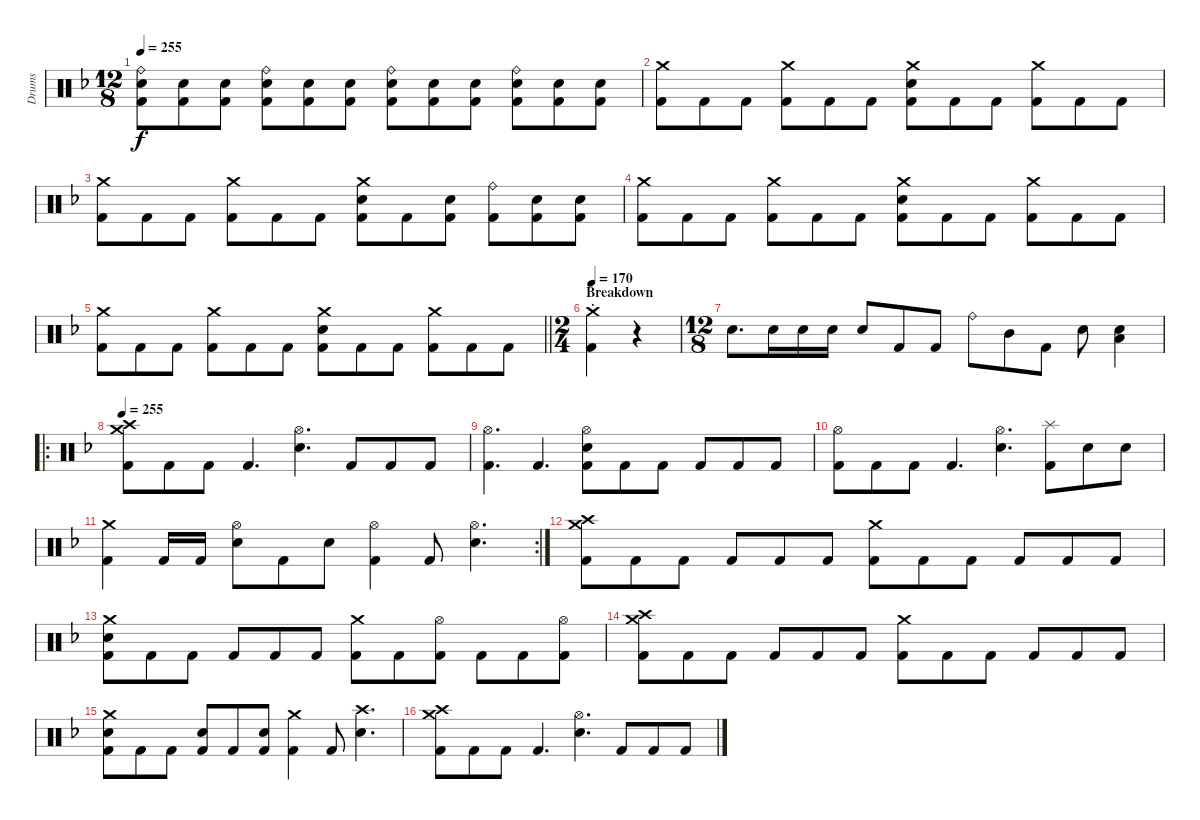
\track ("Drums" "Drums") {instrument percussion}
\staff {score}
\articulation defaults
\ts (12 8)
\tempo 255
\clef neutral
\ks dminor
("Ride (bell)" "Electric Snare (hit)" "Kick (hit) 2").8{dy f} ("Electric Snare (hit)" "Kick (hit) 2").8 ("Electric Snare (hit)" "Kick (hit) 2").8 ("Ride (bell)" "Electric Snare (hit)" "Kick (hit) 2").8 ("Electric Snare (hit)" "Kick (hit) 2").8 ("Electric Snare (hit)" "Kick (hit) 2").8 ("Ride (bell)" "Electric Snare (hit)" "Kick (hit) 2").8 ("Electric Snare (hit)" "Kick (hit) 2").8 ("Electric Snare (hit)" "Kick (hit) 2").8 ("Ride (bell)" "Electric Snare (hit)" "Kick (hit) 2").8 ("Electric Snare (hit)" "Kick (hit) 2").8 ("Electric Snare (hit)" "Kick (hit) 2").8 |
("Crash medium (hit)" "Kick (hit) 2").8 "Kick (hit) 2".8 "Kick (hit) 2".8 ("Crash medium (hit)" "Kick (hit) 2").8 "Kick (hit) 2".8 "Kick (hit) 2".8 ("Crash medium (hit)" "Electric Snare (hit)" "Kick (hit) 2").8 "Kick (hit) 2".8 "Kick (hit) 2".8 ("Crash medium (hit)" "Kick (hit) 2").8 "Kick (hit) 2".8 "Kick (hit) 2".8 |
("Crash medium (hit)" "Kick (hit) 2").8 "Kick (hit) 2".8 "Kick (hit) 2".8 ("Crash medium (hit)" "Kick (hit) 2").8 "Kick (hit) 2".8 "Kick (hit) 2".8 ("Crash medium (hit)" "Electric Snare (hit)" "Kick (hit) 2").8 "Kick (hit) 2".8 ("Electric Snare (hit)" "Kick (hit) 2").8 ("Ride (bell)" "Kick (hit) 2").8 ("Electric Snare (hit)" "Kick (hit) 2").8 ("Electric Snare (hit)" "Kick (hit) 2").8 |
("Crash medium (hit)" "Kick (hit) 2").8 "Kick (hit) 2".8 "Kick (hit) 2".8 ("Crash medium (hit)" "Kick (hit) 2").8 "Kick (hit) 2".8 "Kick (hit) 2".8 ("Crash medium (hit)" "Electric Snare (hit)" "Kick (hit) 2").8 "Kick (hit) 2".8 "Kick (hit) 2".8 ("Crash medium (hit)" "Kick (hit) 2").8 "Kick (hit) 2".8 "Kick (hit) 2".8 |
\barLineRight lightlight
("Crash medium (hit)" "Kick (hit) 2").8 "Kick (hit) 2".8 "Kick (hit) 2".8 ("Crash medium (hit)" "Kick (hit) 2").8 "Kick (hit) 2".8 "Kick (hit) 2".8 ("Crash medium (hit)" "Electric Snare (hit)" "Kick (hit) 2").8 "Kick (hit) 2".8 "Kick (hit) 2".8 ("Crash medium (hit)" "Kick (hit) 2").8 "Kick (hit) 2".8 "Kick (hit) 2".8 |
\ts (2 4)
\section ("" "Breakdown")
\tempo 170
("Crash medium (hit)"{st} "Kick (hit) 2").4 r.4{volume 0} |
\ts (12 8)
"Electric Snare (hit)".8{d volume 14} "Electric Snare (hit)".16 "Electric Snare (hit)".16 "Electric Snare (hit)".16 "Electric Snare (hit)".8 "Kick (hit) 2".8 "Kick (hit) 2".8 "Ride (bell)".8 "Mid Tom (hit)".8 "Kick (hit) 2".8 "Electric Snare (hit)".8 ("Electric Snare (hit)" "Low Floor Tom (hit)").4 |
\ro
\tempo 255
("Crash medium (hit)" "Crash high (hit)" "Kick (hit) 2").8 "Kick (hit) 2".8 "Kick (hit) 2".8 "Kick (hit) 2".4{d} ("Hi-Hat (open)" "Electric Snare (hit)").4{d} "Kick (hit) 2".8 "Kick (hit) 2".8 "Kick (hit) 2".8 |
("Hi-Hat (open)" "Kick (hit) 2").4{d} "Kick (hit) 2".4{d} ("Hi-Hat (open)" "Electric Snare (hit)" "Kick (hit) 2").8 "Kick (hit) 2".8 "Kick (hit) 2".8 "Kick (hit) 2".8 "Kick (hit) 2".8 "Kick (hit) 2".8 |
("Hi-Hat (open)" "Kick (hit) 2").8 "Kick (hit) 2".8 "Kick (hit) 2".8 "Kick (hit) 2".4{d} ("Hi-Hat (open)" "Electric Snare (hit)").4{d} ("Splash (hit)" "Kick (hit) 2").8 "Electric Snare (hit)".8 "Electric Snare (hit)".8 |
\rc 2
("Crash medium (hit)" "Kick (hit) 2").4 "Kick (hit) 2".16 "Kick (hit) 2".16 ("Hi-Hat (open)" "Electric Snare (hit)").8 "Kick (hit) 2".8 "Electric Snare (hit)".8 ("Hi-Hat (open)" "Kick (hit) 2").4 "Kick (hit) 2".8 ("Hi-Hat (open)" "Electric Snare (hit)").4{d} |
("Crash medium (hit)" "Crash high (hit)" "Kick (hit) 2").8 "Kick (hit) 2".8 "Kick (hit) 2".8 "Kick (hit) 2".8 "Kick (hit) 2".8 "Kick (hit) 2".8 ("Crash medium (hit)" "Kick (hit) 2").8 "Kick (hit) 2".8 "Kick (hit) 2".8 "Kick (hit) 2".8 "Kick (hit) 2".8 "Kick (hit) 2".8 |
("Crash medium (hit)" "Electric Snare (hit)" "Kick (hit) 2").8 "Kick (hit) 2".8 "Kick (hit) 2".8 "Kick (hit) 2".8 "Kick (hit) 2".8 "Kick (hit) 2".8 ("Crash medium (hit)" "Kick (hit) 2").8 "Kick (hit) 2".8 ("Hi-Hat (open)" "Kick (hit) 2").8 "Kick (hit) 2".8 "Kick (hit) 2".8 ("Hi-Hat (open)" "Kick (hit) 2").8 |
("Crash medium (hit)" "Crash high (hit)" "Kick (hit) 2").8 "Kick (hit) 2".8 "Kick (hit) 2".8 "Kick (hit) 2".8 "Kick (hit) 2".8 "Kick (hit) 2".8 ("Crash medium (hit)" "Kick (hit) 2").8 "Kick (hit) 2".8 "Kick (hit) 2".8 "Kick (hit) 2".8 "Kick (hit) 2".8 "Kick (hit) 2".8 |
("Crash medium (hit)" "Electric Snare (hit)" "Kick (hit) 2").8 "Kick (hit) 2".8 "Kick (hit) 2".8 ("Electric Snare (hit)" "Kick (hit) 2").8 "Kick (hit) 2".8 ("Electric Snare (hit)" "Kick (hit) 2").8 ("Crash medium (hit)" "Kick (hit) 2").4 "Kick (hit) 2".8 ("Crash high (hit)" "Electric Snare (hit)").4{d} |
("Crash medium (hit)" "Crash high (hit)" "Kick (hit) 2").8 "Kick (hit) 2".8 "Kick (hit) 2".8 "Kick (hit) 2".4{d} ("Hi-Hat (open)" "Electric Snare (hit)").4{d} "Kick (hit) 2".8 "Kick (hit) 2".8 "Kick (hit) 2".8
